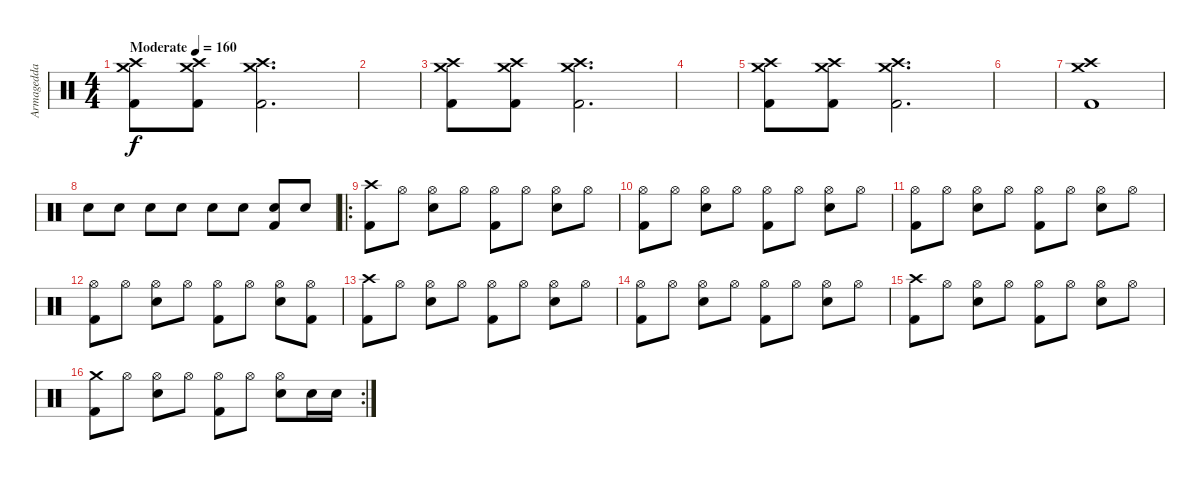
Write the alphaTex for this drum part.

\track ("Armagedda" "Armagedda") {instrument percussion}
\staff {score}
\articulation defaults
\ts (4 4)
\tempo (160 "Moderate")
\clef neutral
\ks c
("Crash high (hit)" "Crash medium (hit)" "Kick (hit) 2").8{dy f} ("Crash high (hit)" "Crash medium (hit)" "Kick (hit) 2").8 ("Crash high (hit)" "Crash medium (hit)" "Kick (hit) 2").2{d} |
|
("Crash high (hit)" "Crash medium (hit)" "Kick (hit) 2").8 ("Crash high (hit)" "Crash medium (hit)" "Kick (hit) 2").8 ("Crash high (hit)" "Crash medium (hit)" "Kick (hit) 2").2{d} |
|
("Crash high (hit)" "Crash medium (hit)" "Kick (hit) 2").8 ("Crash high (hit)" "Crash medium (hit)" "Kick (hit) 2").8 ("Crash high (hit)" "Crash medium (hit)" "Kick (hit) 2").2{d} |
|
("Crash medium (hit)" "Crash high (hit)" "Kick (hit) 2").1 |
"Snare (hit)".8 "Snare (hit)".8 "Snare (hit)".8 "Snare (hit)".8 "Snare (hit)".8 "Snare (hit)".8 ("Snare (hit) 2" "Kick (hit) 2").8 "Snare (hit)".8 |
\ro
("Crash high (hit)" "Kick (hit) 2").8 "Hi-Hat (open)".8 ("Hi-Hat (open)" "Snare (hit) 2").8 "Hi-Hat (open)".8 ("Hi-Hat (open)" "Kick (hit) 2").8 "Hi-Hat (open)".8 ("Hi-Hat (open)" "Snare (hit) 2").8 "Hi-Hat (open)".8 |
("Hi-Hat (open)" "Kick (hit) 2").8 "Hi-Hat (open)".8 ("Hi-Hat (open)" "Snare (hit) 2").8 "Hi-Hat (open)".8 ("Hi-Hat (open)" "Kick (hit) 2").8 "Hi-Hat (open)".8 ("Hi-Hat (open)" "Snare (hit) 2").8 "Hi-Hat (open)".8 |
("Hi-Hat (open)" "Kick (hit) 2").8 "Hi-Hat (open)".8 ("Hi-Hat (open)" "Snare (hit) 2").8 "Hi-Hat (open)".8 ("Hi-Hat (open)" "Kick (hit) 2").8 "Hi-Hat (open)".8 ("Hi-Hat (open)" "Snare (hit) 2").8 "Hi-Hat (open)".8 |
("Hi-Hat (open)" "Kick (hit) 2").8 "Hi-Hat (open)".8 ("Hi-Hat (open)" "Snare (hit) 2").8 "Hi-Hat (open)".8 ("Hi-Hat (open)" "Kick (hit) 2").8 "Hi-Hat (open)".8 ("Hi-Hat (open)" "Snare (hit) 2").8 ("Hi-Hat (open)" "Kick (hit) 2").8 |
("Crash high (hit)" "Kick (hit) 2").8 "Hi-Hat (open)".8 ("Hi-Hat (open)" "Snare (hit) 2").8 "Hi-Hat (open)".8 ("Hi-Hat (open)" "Kick (hit) 2").8 "Hi-Hat (open)".8 ("Hi-Hat (open)" "Snare (hit) 2").8 "Hi-Hat (open)".8 |
("Hi-Hat (open)" "Kick (hit) 2").8 "Hi-Hat (open)".8 ("Hi-Hat (open)" "Snare (hit) 2").8 "Hi-Hat (open)".8 ("Hi-Hat (open)" "Kick (hit) 2").8 "Hi-Hat (open)".8 ("Hi-Hat (open)" "Snare (hit) 2").8 "Hi-Hat (open)".8 |
("Crash high (hit)" "Kick (hit) 2").8 "Hi-Hat (open)".8 ("Hi-Hat (open)" "Snare (hit) 2").8 "Hi-Hat (open)".8 ("Hi-Hat (open)" "Kick (hit) 2").8 "Hi-Hat (open)".8 ("Hi-Hat (open)" "Snare (hit) 2").8 "Hi-Hat (open)".8 |
\rc 2
("Crash medium (hit)" "Kick (hit) 2").8 "Hi-Hat (open)".8 ("Hi-Hat (open)" "Snare (hit) 2").8 "Hi-Hat (open)".8 ("Hi-Hat (open)" "Kick (hit) 2").8 "Hi-Hat (open)".8 ("Hi-Hat (open)" "Snare (hit) 2").8 "Snare (hit) 2".16 "Snare (hit) 2".16
